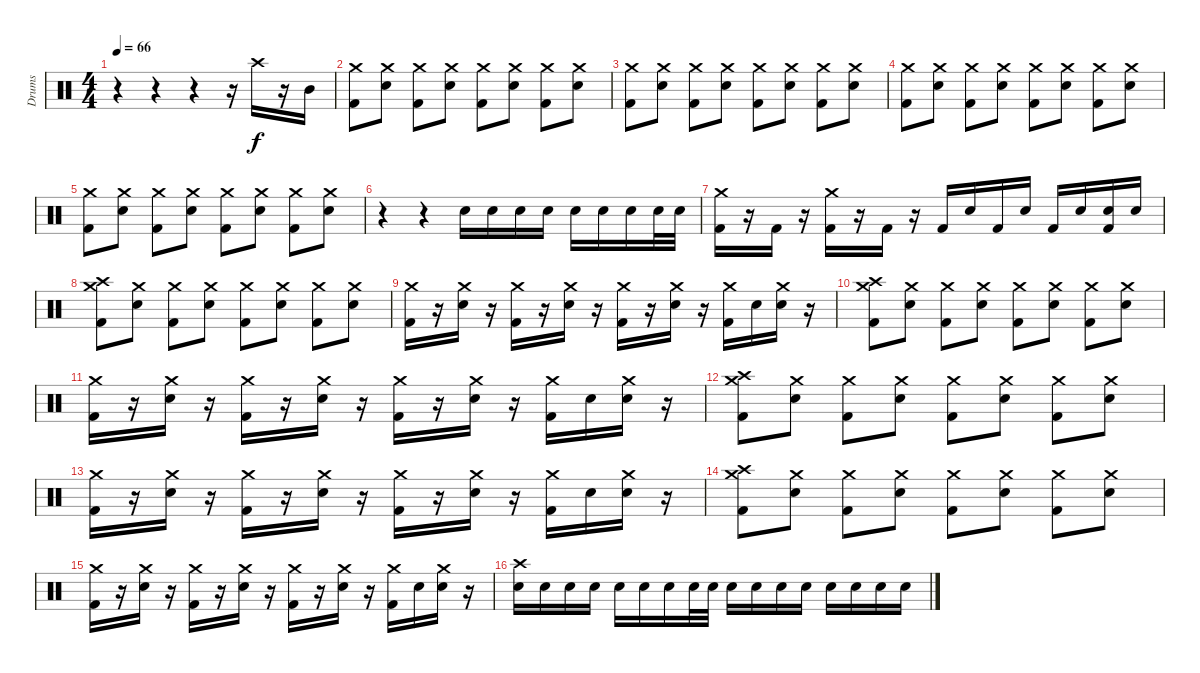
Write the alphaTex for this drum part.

\track ("Drums" "Drums") {instrument percussion}
\staff {score}
\articulation defaults
\ts (4 4)
\tempo 66
\clef neutral
\ks c
r.4{dy f} r.4 r.4 r.16 "Crash high (hit)".16 r.16 "Mid Tom (hit)".16 |
("Crash medium (hit)" "Kick (hit) 2").8 ("Crash medium (hit)" "Snare (hit) 2").8 ("Crash medium (hit)" "Kick (hit) 2").8 ("Crash medium (hit)" "Snare (hit) 2").8 ("Crash medium (hit)" "Kick (hit) 2").8 ("Crash medium (hit)" "Snare (hit) 2").8 ("Crash medium (hit)" "Kick (hit) 2").8 ("Crash medium (hit)" "Snare (hit) 2").8 |
("Crash medium (hit)" "Kick (hit) 2").8 ("Crash medium (hit)" "Snare (hit) 2").8 ("Crash medium (hit)" "Kick (hit) 2").8 ("Crash medium (hit)" "Snare (hit) 2").8 ("Crash medium (hit)" "Kick (hit) 2").8 ("Crash medium (hit)" "Snare (hit) 2").8 ("Crash medium (hit)" "Kick (hit) 2").8 ("Crash medium (hit)" "Snare (hit) 2").8 |
("Crash medium (hit)" "Kick (hit) 2").8 ("Crash medium (hit)" "Snare (hit) 2").8 ("Crash medium (hit)" "Kick (hit) 2").8 ("Crash medium (hit)" "Snare (hit) 2").8 ("Crash medium (hit)" "Kick (hit) 2").8 ("Crash medium (hit)" "Snare (hit) 2").8 ("Crash medium (hit)" "Kick (hit) 2").8 ("Crash medium (hit)" "Snare (hit) 2").8 |
("Crash medium (hit)" "Kick (hit) 2").8 ("Crash medium (hit)" "Snare (hit) 2").8 ("Crash medium (hit)" "Kick (hit) 2").8 ("Crash medium (hit)" "Snare (hit) 2").8 ("Crash medium (hit)" "Kick (hit) 2").8 ("Crash medium (hit)" "Snare (hit) 2").8 ("Crash medium (hit)" "Kick (hit) 2").8 ("Crash medium (hit)" "Snare (hit) 2").8 |
r.4 r.4 "Snare (hit) 2".16 "Snare (hit) 2".16 "Snare (hit) 2".16 "Snare (hit) 2".16 "Snare (hit) 2".16 "Snare (hit) 2".16 "Snare (hit) 2".16 "Snare (hit) 2".32 "Snare (hit) 2".32 |
("Crash medium (hit)" "Kick (hit) 2").16 r.16 "Kick (hit) 2".16 r.16 ("Crash medium (hit)" "Kick (hit) 2").16 r.16 "Kick (hit) 2".16 r.16 "Kick (hit) 2".16 "Snare (hit) 2".16 "Kick (hit) 2".16 "Snare (hit) 2".16 "Kick (hit) 2".16 "Snare (hit) 2".16 ("Snare (hit) 2" "Kick (hit) 2").16 "Snare (hit) 2".16 |
("Crash high (hit)" "Crash medium (hit)" "Kick (hit) 2").8 ("Crash medium (hit)" "Snare (hit) 2").8 ("Crash medium (hit)" "Kick (hit) 2").8 ("Crash medium (hit)" "Snare (hit) 2").8 ("Crash medium (hit)" "Kick (hit) 2").8 ("Crash medium (hit)" "Snare (hit) 2").8 ("Crash medium (hit)" "Kick (hit) 2").8 ("Crash medium (hit)" "Snare (hit) 2").8 |
("Crash medium (hit)" "Kick (hit) 2").16 r.16 ("Crash medium (hit)" "Snare (hit) 2").16 r.16 ("Crash medium (hit)" "Kick (hit) 2").16 r.16 ("Crash medium (hit)" "Snare (hit) 2").16 r.16 ("Crash medium (hit)" "Kick (hit) 2").16 r.16 ("Crash medium (hit)" "Snare (hit) 2").16 r.16 ("Crash medium (hit)" "Kick (hit) 2").16 "Snare (hit) 2".16 ("Crash medium (hit)" "Snare (hit) 2").16 r.16 |
("Crash high (hit)" "Crash medium (hit)" "Kick (hit) 2").8 ("Crash medium (hit)" "Snare (hit) 2").8 ("Crash medium (hit)" "Kick (hit) 2").8 ("Crash medium (hit)" "Snare (hit) 2").8 ("Crash medium (hit)" "Kick (hit) 2").8 ("Crash medium (hit)" "Snare (hit) 2").8 ("Crash medium (hit)" "Kick (hit) 2").8 ("Crash medium (hit)" "Snare (hit) 2").8 |
("Crash medium (hit)" "Kick (hit) 2").16 r.16 ("Crash medium (hit)" "Snare (hit) 2").16 r.16 ("Crash medium (hit)" "Kick (hit) 2").16 r.16 ("Crash medium (hit)" "Snare (hit) 2").16 r.16 ("Crash medium (hit)" "Kick (hit) 2").16 r.16 ("Crash medium (hit)" "Snare (hit) 2").16 r.16 ("Crash medium (hit)" "Kick (hit) 2").16 "Snare (hit) 2".16 ("Crash medium (hit)" "Snare (hit) 2").16 r.16 |
("Crash high (hit)" "Crash medium (hit)" "Kick (hit) 2").8 ("Crash medium (hit)" "Snare (hit) 2").8 ("Crash medium (hit)" "Kick (hit) 2").8 ("Crash medium (hit)" "Snare (hit) 2").8 ("Crash medium (hit)" "Kick (hit) 2").8 ("Crash medium (hit)" "Snare (hit) 2").8 ("Crash medium (hit)" "Kick (hit) 2").8 ("Crash medium (hit)" "Snare (hit) 2").8 |
("Crash medium (hit)" "Kick (hit) 2").16 r.16 ("Crash medium (hit)" "Snare (hit) 2").16 r.16 ("Crash medium (hit)" "Kick (hit) 2").16 r.16 ("Crash medium (hit)" "Snare (hit) 2").16 r.16 ("Crash medium (hit)" "Kick (hit) 2").16 r.16 ("Crash medium (hit)" "Snare (hit) 2").16 r.16 ("Crash medium (hit)" "Kick (hit) 2").16 "Snare (hit) 2".16 ("Crash medium (hit)" "Snare (hit) 2").16 r.16 |
("Crash high (hit)" "Crash medium (hit)" "Kick (hit) 2").8 ("Crash medium (hit)" "Snare (hit) 2").8 ("Crash medium (hit)" "Kick (hit) 2").8 ("Crash medium (hit)" "Snare (hit) 2").8 ("Crash medium (hit)" "Kick (hit) 2").8 ("Crash medium (hit)" "Snare (hit) 2").8 ("Crash medium (hit)" "Kick (hit) 2").8 ("Crash medium (hit)" "Snare (hit) 2").8 |
("Crash medium (hit)" "Kick (hit) 2").16 r.16 ("Crash medium (hit)" "Snare (hit) 2").16 r.16 ("Crash medium (hit)" "Kick (hit) 2").16 r.16 ("Crash medium (hit)" "Snare (hit) 2").16 r.16 ("Crash medium (hit)" "Kick (hit) 2").16 r.16 ("Crash medium (hit)" "Snare (hit) 2").16 r.16 ("Crash medium (hit)" "Kick (hit) 2").16 "Snare (hit) 2".16 ("Crash medium (hit)" "Snare (hit) 2").16 r.16 |
("Crash high (hit)" "Snare (hit) 2").16 "Snare (hit) 2".16 "Snare (hit) 2".16 "Snare (hit) 2".16 "Snare (hit) 2".16 "Snare (hit) 2".16 "Snare (hit) 2".16 "Snare (hit) 2".32 "Snare (hit) 2".32 "Snare (hit) 2".16 "Snare (hit) 2".16 "Snare (hit) 2".16 "Snare (hit) 2".16 "Snare (hit) 2".16 "Snare (hit) 2".16 "Snare (hit) 2".16 "Snare (hit) 2".16
